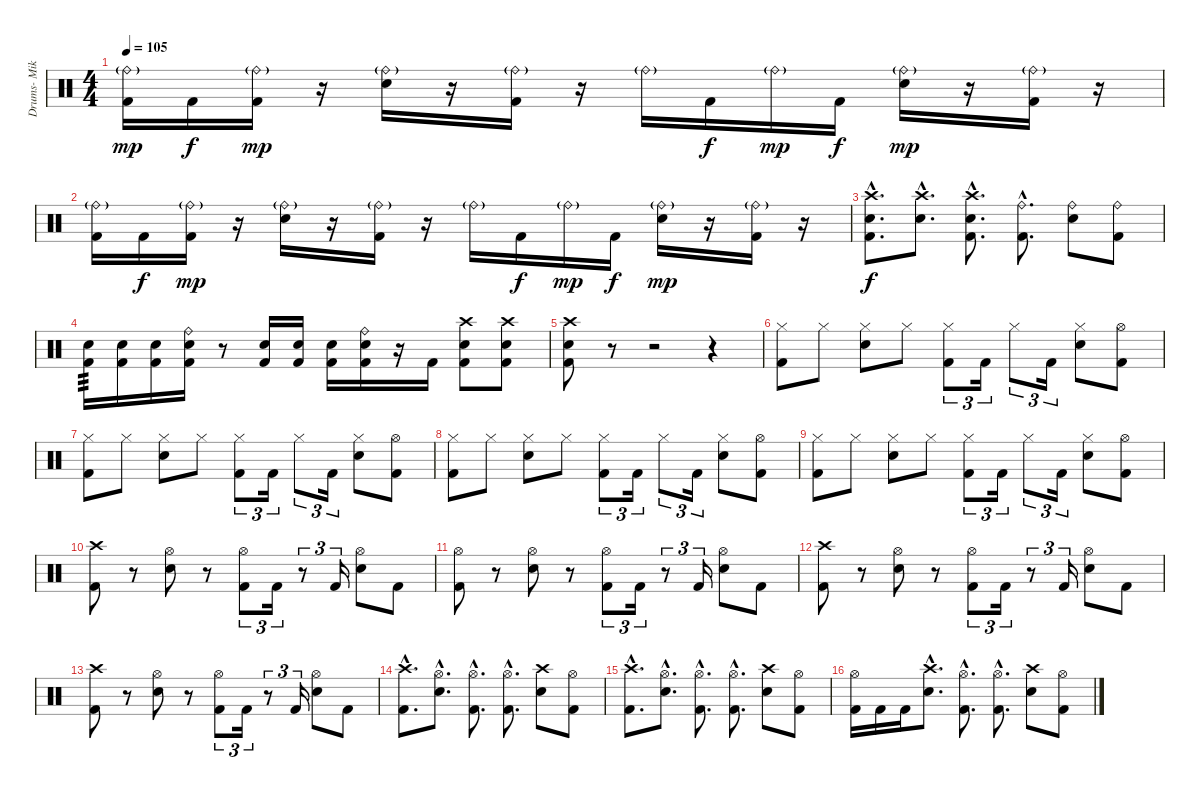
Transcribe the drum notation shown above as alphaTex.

\track ("Drums- Mike " "Drums- Mik") {instrument percussion}
\staff {score}
\articulation defaults
\ts (4 4)
\tempo 105
\clef neutral
\ks c
("Ride (bell)"{g} "Kick (hit) 2").16{dy mp} "Kick (hit) 2".16{dy f} ("Ride (bell)"{g} "Kick (hit) 2").16{dy mp} r.16 ("Ride (bell)"{g} "Snare (hit) 2").16 r.16 ("Ride (bell)"{g} "Kick (hit) 2").16 r.16 "Ride (bell)"{g}.16 "Kick (hit) 2".16{dy f} "Ride (bell)"{g}.16{dy mp} "Kick (hit) 2".16{dy f} ("Ride (bell)"{g} "Snare (hit) 2").16{dy mp} r.16 ("Ride (bell)"{g} "Kick (hit) 2").16 r.16 |
("Ride (bell)"{g} "Kick (hit) 2").16 "Kick (hit) 2".16{dy f} ("Ride (bell)"{g} "Kick (hit) 2").16{dy mp} r.16 ("Ride (bell)"{g} "Snare (hit) 2").16 r.16 ("Ride (bell)"{g} "Kick (hit) 2").16 r.16 "Ride (bell)"{g}.16 "Kick (hit) 2".16{dy f} "Ride (bell)"{g}.16{dy mp} "Kick (hit) 2".16{dy f} ("Ride (bell)"{g} "Snare (hit) 2").16{dy mp} r.16 ("Ride (bell)"{g} "Kick (hit) 2").16 r.16 |
("Crash high (hit)"{hac} "Snare (hit) 2"{hac} "Kick (hit) 2"{hac}).8{d dy f} ("Crash high (hit)"{hac} "Snare (hit) 2"{hac}).8{d} ("Crash high (hit)"{hac} "Snare (hit) 2"{hac} "Kick (hit) 2"{hac}).8{d} ("Ride (bell)"{hac} "Kick (hit) 2"{hac}).8{d} ("Ride (bell)" "Snare (hit) 2").8 ("Ride (bell)" "Kick (hit) 2").8 |
("Snare (hit) 2" "Kick (hit) 2").16{tp 3} ("Snare (hit) 2" "Kick (hit) 2").16 ("Snare (hit) 2" "Kick (hit) 2").16 ("Ride (bell)" "Snare (hit) 2" "Kick (hit) 2").16 r.8 ("Snare (hit) 2" "Kick (hit) 2").16 ("Snare (hit) 2" "Kick (hit) 2").16 ("Snare (hit) 2" "Kick (hit) 2").16 ("Ride (bell)" "Snare (hit) 2" "Kick (hit) 2").16 r.16 "Kick (hit) 2".16 ("Crash high (hit)" "Snare (hit) 2" "Kick (hit) 2").8 ("Crash high (hit)" "Snare (hit) 2" "Kick (hit) 2").8 |
("Crash high (hit)" "Snare (hit) 2" "Kick (hit) 2").8 r.8 r.2 r.4 |
("Hi-Hat (closed)" "Kick (hit) 2").8 "Hi-Hat (closed)".8 ("Hi-Hat (closed)" "Snare (hit) 2").8 "Hi-Hat (closed)".8 ("Hi-Hat (closed)" "Kick (hit) 2").8{tu (3 2)} "Kick (hit) 2".16{tu (3 2)} "Hi-Hat (closed)".8{tu (3 2)} "Kick (hit) 2".16{tu (3 2)} ("Hi-Hat (closed)" "Snare (hit) 2").8 ("Hi-Hat (open)" "Kick (hit) 2").8 |
("Hi-Hat (closed)" "Kick (hit) 2").8 "Hi-Hat (closed)".8 ("Hi-Hat (closed)" "Snare (hit) 2").8 "Hi-Hat (closed)".8 ("Hi-Hat (closed)" "Kick (hit) 2").8{tu (3 2)} "Kick (hit) 2".16{tu (3 2)} "Hi-Hat (closed)".8{tu (3 2)} "Kick (hit) 2".16{tu (3 2)} ("Hi-Hat (closed)" "Snare (hit) 2").8 ("Hi-Hat (open)" "Kick (hit) 2").8 |
("Hi-Hat (closed)" "Kick (hit) 2").8 "Hi-Hat (closed)".8 ("Hi-Hat (closed)" "Snare (hit) 2").8 "Hi-Hat (closed)".8 ("Hi-Hat (closed)" "Kick (hit) 2").8{tu (3 2)} "Kick (hit) 2".16{tu (3 2)} "Hi-Hat (closed)".8{tu (3 2)} "Kick (hit) 2".16{tu (3 2)} ("Hi-Hat (closed)" "Snare (hit) 2").8 ("Hi-Hat (open)" "Kick (hit) 2").8 |
("Hi-Hat (closed)" "Kick (hit) 2").8 "Hi-Hat (closed)".8 ("Hi-Hat (closed)" "Snare (hit) 2").8 "Hi-Hat (closed)".8 ("Hi-Hat (closed)" "Kick (hit) 2").8{tu (3 2)} "Kick (hit) 2".16{tu (3 2)} "Hi-Hat (closed)".8{tu (3 2)} "Kick (hit) 2".16{tu (3 2)} ("Hi-Hat (closed)" "Snare (hit) 2").8 ("Hi-Hat (open)" "Kick (hit) 2").8 |
("Crash high (hit)" "Kick (hit) 2").8 r.8 ("Hi-Hat (open)" "Snare (hit) 2").8 r.8 ("Hi-Hat (open)" "Kick (hit) 2").8{tu (3 2)} "Kick (hit) 2".16{tu (3 2)} r.8{tu (3 2)} "Kick (hit) 2".16{tu (3 2)} ("Hi-Hat (open)" "Snare (hit) 2").8 "Kick (hit) 2".8 |
("Hi-Hat (open)" "Kick (hit) 2").8 r.8 ("Hi-Hat (open)" "Snare (hit) 2").8 r.8 ("Hi-Hat (open)" "Kick (hit) 2").8{tu (3 2)} "Kick (hit) 2".16{tu (3 2)} r.8{tu (3 2)} "Kick (hit) 2".16{tu (3 2)} ("Hi-Hat (open)" "Snare (hit) 2").8 "Kick (hit) 2".8 |
("Crash high (hit)" "Kick (hit) 2").8 r.8 ("Hi-Hat (open)" "Snare (hit) 2").8 r.8 ("Hi-Hat (open)" "Kick (hit) 2").8{tu (3 2)} "Kick (hit) 2".16{tu (3 2)} r.8{tu (3 2)} "Kick (hit) 2".16{tu (3 2)} ("Hi-Hat (open)" "Snare (hit) 2").8 "Kick (hit) 2".8 |
("Crash high (hit)" "Kick (hit) 2").8 r.8 ("Hi-Hat (open)" "Snare (hit) 2").8 r.8 ("Hi-Hat (open)" "Kick (hit) 2").8{tu (3 2)} "Kick (hit) 2".16{tu (3 2)} r.8{tu (3 2)} "Kick (hit) 2".16{tu (3 2)} ("Hi-Hat (open)" "Snare (hit) 2").8 "Kick (hit) 2".8 |
("Crash high (hit)"{hac} "Kick (hit) 2"{hac}).8{d} ("Hi-Hat (open)"{hac} "Snare (hit) 2"{hac}).8{d} ("Hi-Hat (open)"{hac} "Kick (hit) 2"{hac}).8{d} ("Hi-Hat (open)"{hac} "Kick (hit) 2"{hac}).8{d} ("Crash high (hit)" "Snare (hit) 2").8 ("Hi-Hat (open)" "Kick (hit) 2").8 |
("Crash high (hit)"{hac} "Kick (hit) 2"{hac}).8{d} ("Hi-Hat (open)"{hac} "Snare (hit) 2"{hac}).8{d} ("Hi-Hat (open)"{hac} "Kick (hit) 2"{hac}).8{d} ("Hi-Hat (open)"{hac} "Kick (hit) 2"{hac}).8{d} ("Crash high (hit)" "Snare (hit) 2").8 ("Hi-Hat (open)" "Kick (hit) 2").8 |
("Hi-Hat (open)" "Kick (hit) 2").16 "Kick (hit) 2".16 "Kick (hit) 2".16 ("Crash high (hit)"{hac} "Snare (hit) 2"{hac}).8{d} ("Hi-Hat (open)"{hac} "Kick (hit) 2"{hac}).8{d} ("Hi-Hat (open)"{hac} "Kick (hit) 2"{hac}).8{d} ("Crash high (hit)" "Snare (hit) 2").8 ("Hi-Hat (open)" "Kick (hit) 2").8
